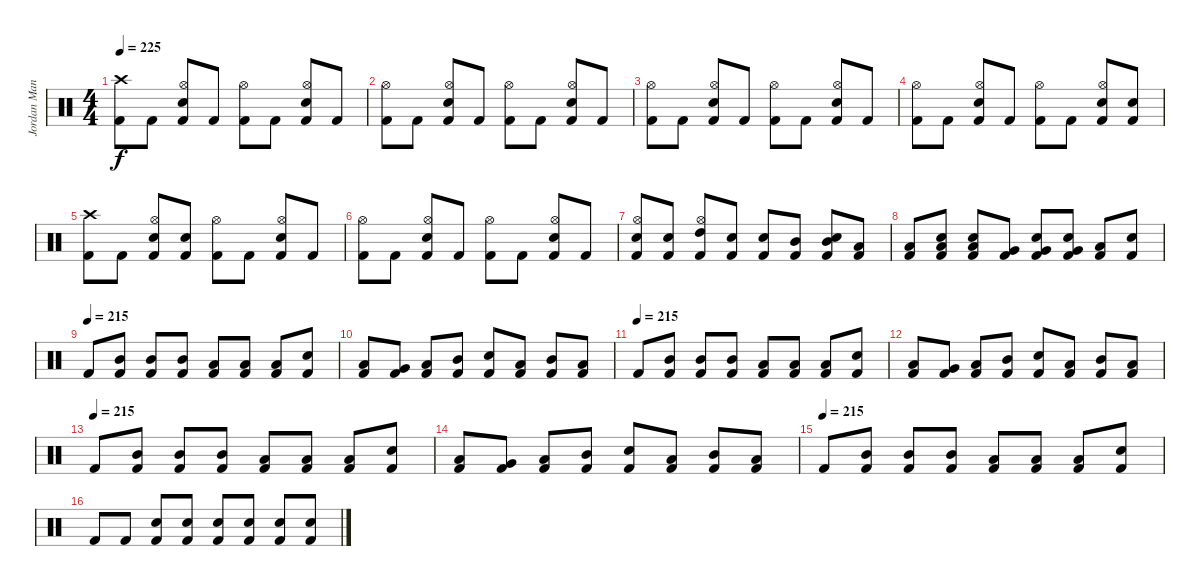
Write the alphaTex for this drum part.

\track ("Jordan Mancino" "Jordan Man") {instrument percussion}
\staff {score}
\articulation defaults
\ts (4 4)
\tempo 225
\clef neutral
\ks c
("Crash high (hit)" "Kick (hit) 2").8{dy f} "Kick (hit) 2".8 ("Hi-Hat (open)" "Electric Snare (hit)" "Kick (hit) 2").8 "Kick (hit) 2".8 ("Hi-Hat (open)" "Kick (hit) 2").8 "Kick (hit) 2".8 ("Hi-Hat (open)" "Electric Snare (hit)" "Kick (hit) 2").8 "Kick (hit) 2".8 |
("Hi-Hat (open)" "Kick (hit) 2").8 "Kick (hit) 2".8 ("Hi-Hat (open)" "Electric Snare (hit)" "Kick (hit) 2").8 "Kick (hit) 2".8 ("Hi-Hat (open)" "Kick (hit) 2").8 "Kick (hit) 2".8 ("Hi-Hat (open)" "Electric Snare (hit)" "Kick (hit) 2").8 "Kick (hit) 2".8 |
("Hi-Hat (open)" "Kick (hit) 2").8 "Kick (hit) 2".8 ("Hi-Hat (open)" "Electric Snare (hit)" "Kick (hit) 2").8 "Kick (hit) 2".8 ("Hi-Hat (open)" "Kick (hit) 2").8 "Kick (hit) 2".8 ("Hi-Hat (open)" "Electric Snare (hit)" "Kick (hit) 2").8 "Kick (hit) 2".8 |
("Hi-Hat (open)" "Kick (hit) 2").8 "Kick (hit) 2".8 ("Hi-Hat (open)" "Electric Snare (hit)" "Kick (hit) 2").8 "Kick (hit) 2".8 ("Hi-Hat (open)" "Kick (hit) 2").8 "Kick (hit) 2".8 ("Hi-Hat (open)" "Electric Snare (hit)" "Kick (hit) 2").8 ("Electric Snare (hit)" "Kick (hit) 2").8 |
("Crash high (hit)" "Kick (hit) 2").8 "Kick (hit) 2".8 ("Hi-Hat (open)" "Electric Snare (hit)" "Kick (hit) 2").8 ("Electric Snare (hit)" "Kick (hit) 2").8 ("Hi-Hat (open)" "Kick (hit) 2").8 "Kick (hit) 2".8 ("Hi-Hat (open)" "Electric Snare (hit)" "Kick (hit) 2").8 "Kick (hit) 2".8 |
("Hi-Hat (open)" "Kick (hit) 2").8 "Kick (hit) 2".8 ("Hi-Hat (open)" "Electric Snare (hit)" "Kick (hit) 2").8 "Kick (hit) 2".8 ("Hi-Hat (open)" "Kick (hit) 2").8 "Kick (hit) 2".8 ("Hi-Hat (open)" "Electric Snare (hit)" "Kick (hit) 2").8 "Kick (hit) 2".8 |
("Hi-Hat (open)" "Electric Snare (hit)" "Kick (hit) 2").8 ("Electric Snare (hit)" "Kick (hit) 2").8 ("Hi-Hat (open)" "High Tom (hit)" "Kick (hit) 2").8 ("Electric Snare (hit)" "Kick (hit) 2").8 ("Electric Snare (hit)" "Kick (hit) 2").8 ("Mid Tom (hit)" "Kick (hit) 2").8 ("Electric Snare (hit)" "Mid Tom (hit)" "Kick (hit) 2").8 ("Low Tom (hit)" "Kick (hit) 2").8 |
("Low Tom (hit)" "Kick (hit) 2").8 ("Electric Snare (hit)" "Low Tom (hit)" "Kick (hit) 2").8 ("Electric Snare (hit)" "Low Tom (hit)" "Kick (hit) 2").8 ("Very Low Tom (hit)" "Kick (hit) 2").8 ("Electric Snare (hit)" "Very Low Tom (hit)" "Kick (hit) 2").8 ("Electric Snare (hit)" "Very Low Tom (hit)" "Kick (hit) 2").8 ("Low Floor Tom (hit)" "Kick (hit) 2").8 ("Electric Snare (hit)" "Kick (hit) 2").8 |
\tempo (215)
"Kick (hit) 2".8 ("Mid Tom (hit)" "Kick (hit) 2").8 ("Mid Tom (hit)" "Kick (hit) 2").8 ("Mid Tom (hit)" "Kick (hit) 2").8 ("Low Tom (hit)" "Kick (hit) 2").8 ("Low Tom (hit)" "Kick (hit) 2").8 ("Low Tom (hit)" "Kick (hit) 2").8 ("Electric Snare (hit)" "Kick (hit) 2").8 |
("Low Tom (hit)" "Kick (hit) 2").8 ("Very Low Tom (hit)" "Kick (hit) 2").8 ("Low Tom (hit)" "Kick (hit) 2").8 ("Mid Tom (hit)" "Kick (hit) 2").8 ("Electric Snare (hit)" "Kick (hit) 2").8 ("Low Tom (hit)" "Kick (hit) 2").8 ("Mid Tom (hit)" "Kick (hit) 2").8 ("Low Tom (hit)" "Kick (hit) 2").8 |
\tempo (215)
"Kick (hit) 2".8 ("Mid Tom (hit)" "Kick (hit) 2").8 ("Mid Tom (hit)" "Kick (hit) 2").8 ("Mid Tom (hit)" "Kick (hit) 2").8 ("Low Tom (hit)" "Kick (hit) 2").8 ("Low Tom (hit)" "Kick (hit) 2").8 ("Low Tom (hit)" "Kick (hit) 2").8 ("Electric Snare (hit)" "Kick (hit) 2").8 |
("Low Tom (hit)" "Kick (hit) 2").8 ("Very Low Tom (hit)" "Kick (hit) 2").8 ("Low Tom (hit)" "Kick (hit) 2").8 ("Mid Tom (hit)" "Kick (hit) 2").8 ("Electric Snare (hit)" "Kick (hit) 2").8 ("Low Tom (hit)" "Kick (hit) 2").8 ("Mid Tom (hit)" "Kick (hit) 2").8 ("Low Tom (hit)" "Kick (hit) 2").8 |
\tempo (215)
"Kick (hit) 2".8 ("Mid Tom (hit)" "Kick (hit) 2").8 ("Mid Tom (hit)" "Kick (hit) 2").8 ("Mid Tom (hit)" "Kick (hit) 2").8 ("Low Tom (hit)" "Kick (hit) 2").8 ("Low Tom (hit)" "Kick (hit) 2").8 ("Low Tom (hit)" "Kick (hit) 2").8 ("Electric Snare (hit)" "Kick (hit) 2").8 |
("Low Tom (hit)" "Kick (hit) 2").8 ("Very Low Tom (hit)" "Kick (hit) 2").8 ("Low Tom (hit)" "Kick (hit) 2").8 ("Mid Tom (hit)" "Kick (hit) 2").8 ("Electric Snare (hit)" "Kick (hit) 2").8 ("Low Tom (hit)" "Kick (hit) 2").8 ("Mid Tom (hit)" "Kick (hit) 2").8 ("Low Tom (hit)" "Kick (hit) 2").8 |
\tempo (215)
"Kick (hit) 2".8 ("Mid Tom (hit)" "Kick (hit) 2").8 ("Mid Tom (hit)" "Kick (hit) 2").8 ("Mid Tom (hit)" "Kick (hit) 2").8 ("Low Tom (hit)" "Kick (hit) 2").8 ("Low Tom (hit)" "Kick (hit) 2").8 ("Low Tom (hit)" "Kick (hit) 2").8 ("Electric Snare (hit)" "Kick (hit) 2").8 |
"Kick (hit) 2".8 "Kick (hit) 2".8 ("Electric Snare (hit)" "Kick (hit) 2").8 ("Electric Snare (hit)" "Kick (hit) 2").8 ("Electric Snare (hit)" "Kick (hit) 2").8 ("Electric Snare (hit)" "Kick (hit) 2").8 ("Electric Snare (hit)" "Kick (hit) 2").8 ("Electric Snare (hit)" "Kick (hit) 2").8
